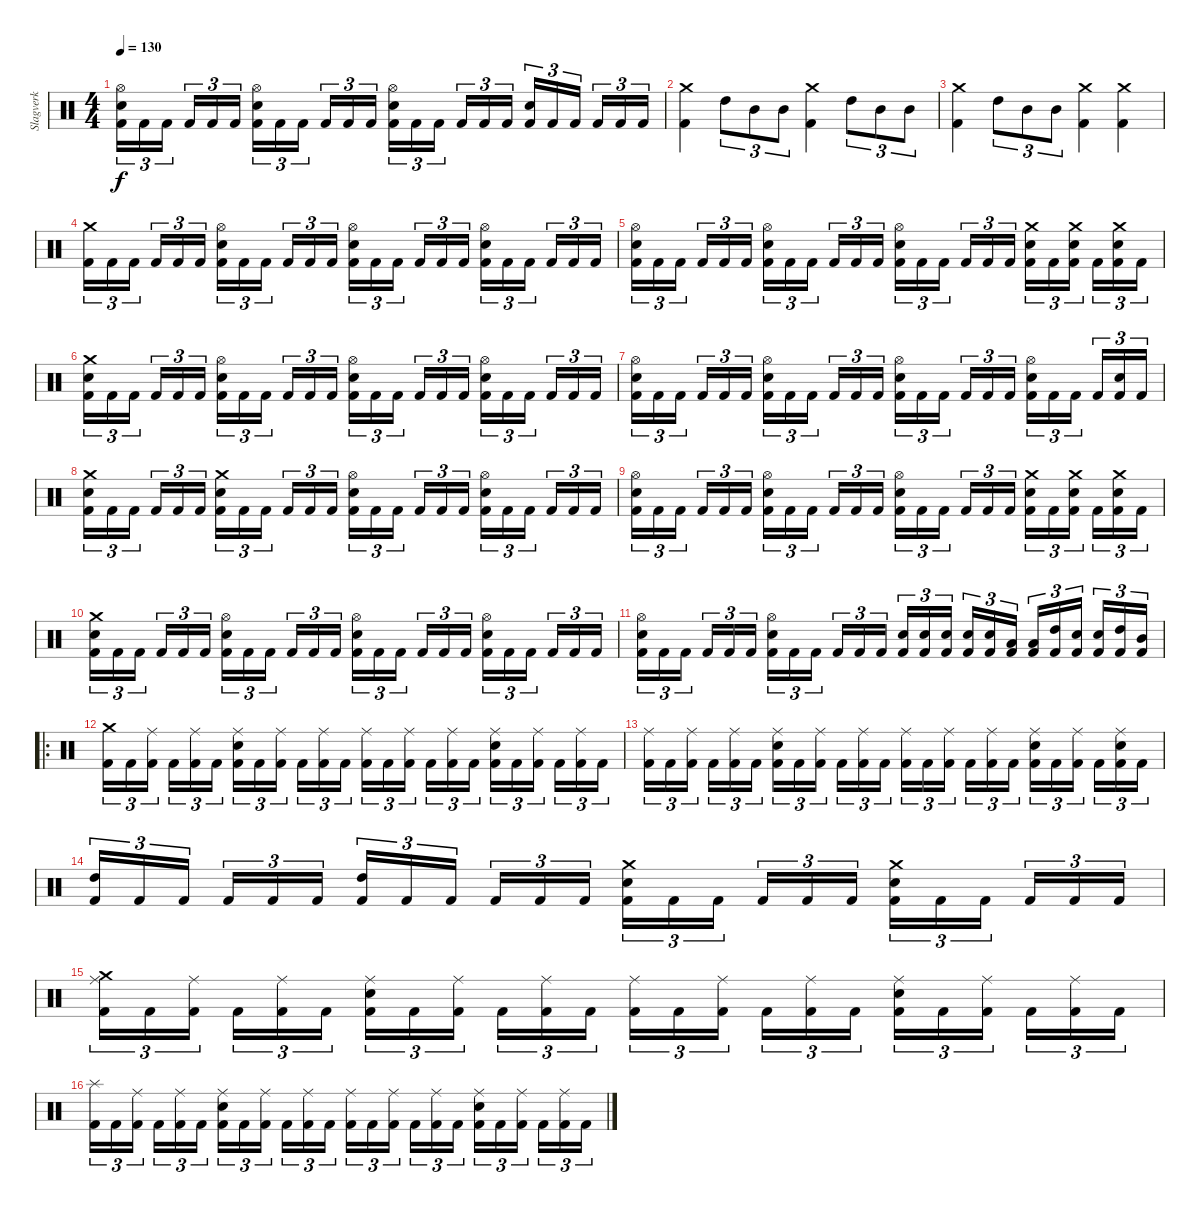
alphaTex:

\track ("Slagverk" "Slagverk") {instrument percussion}
\staff {score}
\articulation defaults
\ts (4 4)
\tempo 130
\clef neutral
\ks c
("Kick (hit) 2" "Electric Snare (hit)" "Hi-Hat (open)").16{tu (3 2) dy f} "Kick (hit) 2".16{tu (3 2)} "Kick (hit) 2".16{tu (3 2)} "Kick (hit) 2".16{tu (3 2)} "Kick (hit) 2".16{tu (3 2)} "Kick (hit) 2".16{tu (3 2)} ("Kick (hit) 2" "Electric Snare (hit)" "Hi-Hat (open)").16{tu (3 2)} "Kick (hit) 2".16{tu (3 2)} "Kick (hit) 2".16{tu (3 2)} "Kick (hit) 2".16{tu (3 2)} "Kick (hit) 2".16{tu (3 2)} "Kick (hit) 2".16{tu (3 2)} ("Kick (hit) 2" "Electric Snare (hit)" "Hi-Hat (open)").16{tu (3 2)} "Kick (hit) 2".16{tu (3 2)} "Kick (hit) 2".16{tu (3 2)} "Kick (hit) 2".16{tu (3 2)} "Kick (hit) 2".16{tu (3 2)} "Kick (hit) 2".16{tu (3 2)} ("Kick (hit) 2" "Electric Snare (hit)").16{tu (3 2)} "Kick (hit) 2".16{tu (3 2)} "Kick (hit) 2".16{tu (3 2)} "Kick (hit) 2".16{tu (3 2)} "Kick (hit) 2".16{tu (3 2)} "Kick (hit) 2".16{tu (3 2)} |
("Crash medium (hit)" "Kick (hit) 2").4 "High Tom (hit)".8{tu (3 2)} "Mid Tom (hit)".8{tu (3 2)} "Mid Tom (hit)".8{tu (3 2)} ("Crash medium (hit)" "Kick (hit) 2").4 "High Tom (hit)".8{tu (3 2)} "Mid Tom (hit)".8{tu (3 2)} "Mid Tom (hit)".8{tu (3 2)} |
("Crash medium (hit)" "Kick (hit) 2").4 "High Tom (hit)".8{tu (3 2)} "Mid Tom (hit)".8{tu (3 2)} "Mid Tom (hit)".8{tu (3 2)} ("Crash medium (hit)" "Kick (hit) 2").4 ("Crash medium (hit)" "Kick (hit) 2").4 |
("Kick (hit) 2" "Crash medium (hit)").16{tu (3 2)} "Kick (hit) 2".16{tu (3 2)} "Kick (hit) 2".16{tu (3 2)} "Kick (hit) 2".16{tu (3 2)} "Kick (hit) 2".16{tu (3 2)} "Kick (hit) 2".16{tu (3 2)} ("Kick (hit) 2" "Electric Snare (hit)" "Hi-Hat (open)").16{tu (3 2)} "Kick (hit) 2".16{tu (3 2)} "Kick (hit) 2".16{tu (3 2)} "Kick (hit) 2".16{tu (3 2)} "Kick (hit) 2".16{tu (3 2)} "Kick (hit) 2".16{tu (3 2)} ("Kick (hit) 2" "Electric Snare (hit)" "Hi-Hat (open)").16{tu (3 2)} "Kick (hit) 2".16{tu (3 2)} "Kick (hit) 2".16{tu (3 2)} "Kick (hit) 2".16{tu (3 2)} "Kick (hit) 2".16{tu (3 2)} "Kick (hit) 2".16{tu (3 2)} ("Kick (hit) 2" "Electric Snare (hit)" "Hi-Hat (open)").16{tu (3 2)} "Kick (hit) 2".16{tu (3 2)} "Kick (hit) 2".16{tu (3 2)} "Kick (hit) 2".16{tu (3 2)} "Kick (hit) 2".16{tu (3 2)} "Kick (hit) 2".16{tu (3 2)} |
("Kick (hit) 2" "Electric Snare (hit)" "Hi-Hat (open)").16{tu (3 2)} "Kick (hit) 2".16{tu (3 2)} "Kick (hit) 2".16{tu (3 2)} "Kick (hit) 2".16{tu (3 2)} "Kick (hit) 2".16{tu (3 2)} "Kick (hit) 2".16{tu (3 2)} ("Kick (hit) 2" "Electric Snare (hit)" "Hi-Hat (open)").16{tu (3 2)} "Kick (hit) 2".16{tu (3 2)} "Kick (hit) 2".16{tu (3 2)} "Kick (hit) 2".16{tu (3 2)} "Kick (hit) 2".16{tu (3 2)} "Kick (hit) 2".16{tu (3 2)} ("Kick (hit) 2" "Electric Snare (hit)" "Hi-Hat (open)").16{tu (3 2)} "Kick (hit) 2".16{tu (3 2)} "Kick (hit) 2".16{tu (3 2)} "Kick (hit) 2".16{tu (3 2)} "Kick (hit) 2".16{tu (3 2)} "Kick (hit) 2".16{tu (3 2)} ("Kick (hit) 2" "Electric Snare (hit)" "Crash medium (hit)").16{tu (3 2)} "Kick (hit) 2".16{tu (3 2)} ("Kick (hit) 2" "Electric Snare (hit)" "Crash medium (hit)").16{tu (3 2)} "Kick (hit) 2".16{tu (3 2)} ("Kick (hit) 2" "Electric Snare (hit)" "Crash medium (hit)").16{tu (3 2)} "Kick (hit) 2".16{tu (3 2)} |
("Kick (hit) 2" "Electric Snare (hit)" "Crash medium (hit)").16{tu (3 2)} "Kick (hit) 2".16{tu (3 2)} "Kick (hit) 2".16{tu (3 2)} "Kick (hit) 2".16{tu (3 2)} "Kick (hit) 2".16{tu (3 2)} "Kick (hit) 2".16{tu (3 2)} ("Kick (hit) 2" "Electric Snare (hit)" "Hi-Hat (open)").16{tu (3 2)} "Kick (hit) 2".16{tu (3 2)} "Kick (hit) 2".16{tu (3 2)} "Kick (hit) 2".16{tu (3 2)} "Kick (hit) 2".16{tu (3 2)} "Kick (hit) 2".16{tu (3 2)} ("Kick (hit) 2" "Electric Snare (hit)" "Hi-Hat (open)").16{tu (3 2)} "Kick (hit) 2".16{tu (3 2)} "Kick (hit) 2".16{tu (3 2)} "Kick (hit) 2".16{tu (3 2)} "Kick (hit) 2".16{tu (3 2)} "Kick (hit) 2".16{tu (3 2)} ("Kick (hit) 2" "Electric Snare (hit)" "Hi-Hat (open)").16{tu (3 2)} "Kick (hit) 2".16{tu (3 2)} "Kick (hit) 2".16{tu (3 2)} "Kick (hit) 2".16{tu (3 2)} "Kick (hit) 2".16{tu (3 2)} "Kick (hit) 2".16{tu (3 2)} |
("Kick (hit) 2" "Electric Snare (hit)" "Hi-Hat (open)").16{tu (3 2)} "Kick (hit) 2".16{tu (3 2)} "Kick (hit) 2".16{tu (3 2)} "Kick (hit) 2".16{tu (3 2)} "Kick (hit) 2".16{tu (3 2)} "Kick (hit) 2".16{tu (3 2)} ("Kick (hit) 2" "Electric Snare (hit)" "Hi-Hat (open)").16{tu (3 2)} "Kick (hit) 2".16{tu (3 2)} "Kick (hit) 2".16{tu (3 2)} "Kick (hit) 2".16{tu (3 2)} "Kick (hit) 2".16{tu (3 2)} "Kick (hit) 2".16{tu (3 2)} ("Kick (hit) 2" "Electric Snare (hit)" "Hi-Hat (open)").16{tu (3 2)} "Kick (hit) 2".16{tu (3 2)} "Kick (hit) 2".16{tu (3 2)} "Kick (hit) 2".16{tu (3 2)} "Kick (hit) 2".16{tu (3 2)} "Kick (hit) 2".16{tu (3 2)} ("Kick (hit) 2" "Electric Snare (hit)" "Hi-Hat (open)").16{tu (3 2)} "Kick (hit) 2".16{tu (3 2)} "Kick (hit) 2".16{tu (3 2)} "Kick (hit) 2".16{tu (3 2)} ("Kick (hit) 2" "Electric Snare (hit)").16{tu (3 2)} "Kick (hit) 2".16{tu (3 2)} |
("Kick (hit) 2" "Electric Snare (hit)" "Crash medium (hit)").16{tu (3 2)} "Kick (hit) 2".16{tu (3 2)} "Kick (hit) 2".16{tu (3 2)} "Kick (hit) 2".16{tu (3 2)} "Kick (hit) 2".16{tu (3 2)} "Kick (hit) 2".16{tu (3 2)} ("Kick (hit) 2" "Electric Snare (hit)" "Crash medium (hit)").16{tu (3 2)} "Kick (hit) 2".16{tu (3 2)} "Kick (hit) 2".16{tu (3 2)} "Kick (hit) 2".16{tu (3 2)} "Kick (hit) 2".16{tu (3 2)} "Kick (hit) 2".16{tu (3 2)} ("Kick (hit) 2" "Electric Snare (hit)" "Hi-Hat (open)").16{tu (3 2)} "Kick (hit) 2".16{tu (3 2)} "Kick (hit) 2".16{tu (3 2)} "Kick (hit) 2".16{tu (3 2)} "Kick (hit) 2".16{tu (3 2)} "Kick (hit) 2".16{tu (3 2)} ("Kick (hit) 2" "Electric Snare (hit)" "Hi-Hat (open)").16{tu (3 2)} "Kick (hit) 2".16{tu (3 2)} "Kick (hit) 2".16{tu (3 2)} "Kick (hit) 2".16{tu (3 2)} "Kick (hit) 2".16{tu (3 2)} "Kick (hit) 2".16{tu (3 2)} |
("Kick (hit) 2" "Electric Snare (hit)" "Hi-Hat (open)").16{tu (3 2)} "Kick (hit) 2".16{tu (3 2)} "Kick (hit) 2".16{tu (3 2)} "Kick (hit) 2".16{tu (3 2)} "Kick (hit) 2".16{tu (3 2)} "Kick (hit) 2".16{tu (3 2)} ("Kick (hit) 2" "Electric Snare (hit)" "Hi-Hat (open)").16{tu (3 2)} "Kick (hit) 2".16{tu (3 2)} "Kick (hit) 2".16{tu (3 2)} "Kick (hit) 2".16{tu (3 2)} "Kick (hit) 2".16{tu (3 2)} "Kick (hit) 2".16{tu (3 2)} ("Kick (hit) 2" "Electric Snare (hit)" "Hi-Hat (open)").16{tu (3 2)} "Kick (hit) 2".16{tu (3 2)} "Kick (hit) 2".16{tu (3 2)} "Kick (hit) 2".16{tu (3 2)} "Kick (hit) 2".16{tu (3 2)} "Kick (hit) 2".16{tu (3 2)} ("Kick (hit) 2" "Electric Snare (hit)" "Crash medium (hit)").16{tu (3 2)} "Kick (hit) 2".16{tu (3 2)} ("Kick (hit) 2" "Electric Snare (hit)" "Crash medium (hit)").16{tu (3 2)} "Kick (hit) 2".16{tu (3 2)} ("Kick (hit) 2" "Electric Snare (hit)" "Crash medium (hit)").16{tu (3 2)} "Kick (hit) 2".16{tu (3 2)} |
("Kick (hit) 2" "Electric Snare (hit)" "Crash medium (hit)").16{tu (3 2)} "Kick (hit) 2".16{tu (3 2)} "Kick (hit) 2".16{tu (3 2)} "Kick (hit) 2".16{tu (3 2)} "Kick (hit) 2".16{tu (3 2)} "Kick (hit) 2".16{tu (3 2)} ("Kick (hit) 2" "Electric Snare (hit)" "Hi-Hat (open)").16{tu (3 2)} "Kick (hit) 2".16{tu (3 2)} "Kick (hit) 2".16{tu (3 2)} "Kick (hit) 2".16{tu (3 2)} "Kick (hit) 2".16{tu (3 2)} "Kick (hit) 2".16{tu (3 2)} ("Kick (hit) 2" "Electric Snare (hit)" "Hi-Hat (open)").16{tu (3 2)} "Kick (hit) 2".16{tu (3 2)} "Kick (hit) 2".16{tu (3 2)} "Kick (hit) 2".16{tu (3 2)} "Kick (hit) 2".16{tu (3 2)} "Kick (hit) 2".16{tu (3 2)} ("Kick (hit) 2" "Electric Snare (hit)" "Hi-Hat (open)").16{tu (3 2)} "Kick (hit) 2".16{tu (3 2)} "Kick (hit) 2".16{tu (3 2)} "Kick (hit) 2".16{tu (3 2)} "Kick (hit) 2".16{tu (3 2)} "Kick (hit) 2".16{tu (3 2)} |
("Kick (hit) 2" "Electric Snare (hit)" "Hi-Hat (open)").16{tu (3 2)} "Kick (hit) 2".16{tu (3 2)} "Kick (hit) 2".16{tu (3 2)} "Kick (hit) 2".16{tu (3 2)} "Kick (hit) 2".16{tu (3 2)} "Kick (hit) 2".16{tu (3 2)} ("Kick (hit) 2" "Electric Snare (hit)" "Hi-Hat (open)").16{tu (3 2)} "Kick (hit) 2".16{tu (3 2)} "Kick (hit) 2".16{tu (3 2)} "Kick (hit) 2".16{tu (3 2)} "Kick (hit) 2".16{tu (3 2)} "Kick (hit) 2".16{tu (3 2)} ("Kick (hit) 2" "Electric Snare (hit)").16{tu (3 2)} ("Kick (hit) 2" "Electric Snare (hit)").16{tu (3 2)} ("Kick (hit) 2" "Electric Snare (hit)").16{tu (3 2)} ("Kick (hit) 2" "Electric Snare (hit)").16{tu (3 2)} ("Kick (hit) 2" "Electric Snare (hit)").16{tu (3 2)} ("Kick (hit) 2" "Low Tom (hit)").16{tu (3 2)} ("Kick (hit) 2" "Low Tom (hit)").16{tu (3 2)} ("Kick (hit) 2" "High Tom (hit)").16{tu (3 2)} ("Kick (hit) 2" "Electric Snare (hit)").16{tu (3 2)} ("Kick (hit) 2" "Electric Snare (hit)").16{tu (3 2)} ("Kick (hit) 2" "High Tom (hit)").16{tu (3 2)} ("Kick (hit) 2" "Mid Tom (hit)").16{tu (3 2)} |
\ro
("Kick (hit) 2" "Crash medium (hit)").16{tu (3 2)} "Kick (hit) 2".16{tu (3 2)} ("Kick (hit) 2" "Ride (middle)").16{tu (3 2)} "Kick (hit) 2".16{tu (3 2)} ("Kick (hit) 2" "Ride (middle)").16{tu (3 2)} "Kick (hit) 2".16{tu (3 2)} ("Kick (hit) 2" "Electric Snare (hit)" "Ride (middle)").16{tu (3 2)} "Kick (hit) 2".16{tu (3 2)} ("Kick (hit) 2" "Ride (middle)").16{tu (3 2)} "Kick (hit) 2".16{tu (3 2)} ("Kick (hit) 2" "Ride (middle)").16{tu (3 2)} "Kick (hit) 2".16{tu (3 2)} ("Kick (hit) 2" "Ride (middle)").16{tu (3 2)} "Kick (hit) 2".16{tu (3 2)} ("Kick (hit) 2" "Ride (middle)").16{tu (3 2)} "Kick (hit) 2".16{tu (3 2)} ("Kick (hit) 2" "Ride (middle)").16{tu (3 2)} "Kick (hit) 2".16{tu (3 2)} ("Kick (hit) 2" "Electric Snare (hit)" "Ride (middle)").16{tu (3 2)} "Kick (hit) 2".16{tu (3 2)} ("Kick (hit) 2" "Ride (middle)").16{tu (3 2)} "Kick (hit) 2".16{tu (3 2)} ("Kick (hit) 2" "Ride (middle)").16{tu (3 2)} "Kick (hit) 2".16{tu (3 2)} |
("Kick (hit) 2" "Ride (middle)").16{tu (3 2)} "Kick (hit) 2".16{tu (3 2)} ("Kick (hit) 2" "Ride (middle)").16{tu (3 2)} "Kick (hit) 2".16{tu (3 2)} ("Kick (hit) 2" "Ride (middle)").16{tu (3 2)} "Kick (hit) 2".16{tu (3 2)} ("Kick (hit) 2" "Electric Snare (hit)" "Ride (middle)").16{tu (3 2)} "Kick (hit) 2".16{tu (3 2)} ("Kick (hit) 2" "Ride (middle)").16{tu (3 2)} "Kick (hit) 2".16{tu (3 2)} ("Kick (hit) 2" "Ride (middle)").16{tu (3 2)} "Kick (hit) 2".16{tu (3 2)} ("Kick (hit) 2" "Ride (middle)").16{tu (3 2)} "Kick (hit) 2".16{tu (3 2)} ("Kick (hit) 2" "Ride (middle)").16{tu (3 2)} "Kick (hit) 2".16{tu (3 2)} ("Kick (hit) 2" "Ride (middle)").16{tu (3 2)} "Kick (hit) 2".16{tu (3 2)} ("Kick (hit) 2" "Electric Snare (hit)" "Ride (middle)").16{tu (3 2)} "Kick (hit) 2".16{tu (3 2)} ("Kick (hit) 2" "Ride (middle)").16{tu (3 2)} "Kick (hit) 2".16{tu (3 2)} ("Kick (hit) 2" "Electric Snare (hit)" "Ride (middle)").16{tu (3 2)} "Kick (hit) 2".16{tu (3 2)} |
("Kick (hit) 2" "High Tom (hit)").16{tu (3 2)} "Kick (hit) 2".16{tu (3 2)} "Kick (hit) 2".16{tu (3 2)} "Kick (hit) 2".16{tu (3 2)} "Kick (hit) 2".16{tu (3 2)} "Kick (hit) 2".16{tu (3 2)} ("Kick (hit) 2" "High Tom (hit)").16{tu (3 2)} "Kick (hit) 2".16{tu (3 2)} "Kick (hit) 2".16{tu (3 2)} "Kick (hit) 2".16{tu (3 2)} "Kick (hit) 2".16{tu (3 2)} "Kick (hit) 2".16{tu (3 2)} ("Kick (hit) 2" "Electric Snare (hit)" "Crash medium (hit)").16{tu (3 2)} "Kick (hit) 2".16{tu (3 2)} "Kick (hit) 2".16{tu (3 2)} "Kick (hit) 2".16{tu (3 2)} "Kick (hit) 2".16{tu (3 2)} "Kick (hit) 2".16{tu (3 2)} ("Kick (hit) 2" "Electric Snare (hit)" "Crash medium (hit)").16{tu (3 2)} "Kick (hit) 2".16{tu (3 2)} "Kick (hit) 2".16{tu (3 2)} "Kick (hit) 2".16{tu (3 2)} "Kick (hit) 2".16{tu (3 2)} "Kick (hit) 2".16{tu (3 2)} |
("Kick (hit) 2" "Crash medium (hit)" "Ride (middle)").16{tu (3 2)} "Kick (hit) 2".16{tu (3 2)} ("Kick (hit) 2" "Ride (middle)").16{tu (3 2)} "Kick (hit) 2".16{tu (3 2)} ("Kick (hit) 2" "Ride (middle)").16{tu (3 2)} "Kick (hit) 2".16{tu (3 2)} ("Kick (hit) 2" "Electric Snare (hit)" "Ride (middle)").16{tu (3 2)} "Kick (hit) 2".16{tu (3 2)} ("Kick (hit) 2" "Ride (middle)").16{tu (3 2)} "Kick (hit) 2".16{tu (3 2)} ("Kick (hit) 2" "Ride (middle)").16{tu (3 2)} "Kick (hit) 2".16{tu (3 2)} ("Kick (hit) 2" "Ride (middle)").16{tu (3 2)} "Kick (hit) 2".16{tu (3 2)} ("Kick (hit) 2" "Ride (middle)").16{tu (3 2)} "Kick (hit) 2".16{tu (3 2)} ("Kick (hit) 2" "Ride (middle)").16{tu (3 2)} "Kick (hit) 2".16{tu (3 2)} ("Kick (hit) 2" "Electric Snare (hit)" "Ride (middle)").16{tu (3 2)} "Kick (hit) 2".16{tu (3 2)} ("Kick (hit) 2" "Ride (middle)").16{tu (3 2)} "Kick (hit) 2".16{tu (3 2)} ("Kick (hit) 2" "Ride (middle)").16{tu (3 2)} "Kick (hit) 2".16{tu (3 2)} |
("Kick (hit) 2" "Splash (hit)").16{tu (3 2)} "Kick (hit) 2".16{tu (3 2)} ("Kick (hit) 2" "Ride (middle)").16{tu (3 2)} "Kick (hit) 2".16{tu (3 2)} ("Kick (hit) 2" "Ride (middle)").16{tu (3 2)} "Kick (hit) 2".16{tu (3 2)} ("Kick (hit) 2" "Electric Snare (hit)" "Ride (middle)").16{tu (3 2)} "Kick (hit) 2".16{tu (3 2)} ("Kick (hit) 2" "Ride (middle)").16{tu (3 2)} "Kick (hit) 2".16{tu (3 2)} ("Kick (hit) 2" "Ride (middle)").16{tu (3 2)} "Kick (hit) 2".16{tu (3 2)} ("Kick (hit) 2" "Ride (middle)").16{tu (3 2)} "Kick (hit) 2".16{tu (3 2)} ("Kick (hit) 2" "Ride (middle)").16{tu (3 2)} "Kick (hit) 2".16{tu (3 2)} ("Kick (hit) 2" "Ride (middle)").16{tu (3 2)} "Kick (hit) 2".16{tu (3 2)} ("Kick (hit) 2" "Electric Snare (hit)" "Ride (middle)").16{tu (3 2)} "Kick (hit) 2".16{tu (3 2)} ("Kick (hit) 2" "Ride (middle)").16{tu (3 2)} "Kick (hit) 2".16{tu (3 2)} ("Kick (hit) 2" "Ride (middle)").16{tu (3 2)} "Kick (hit) 2".16{tu (3 2)}
